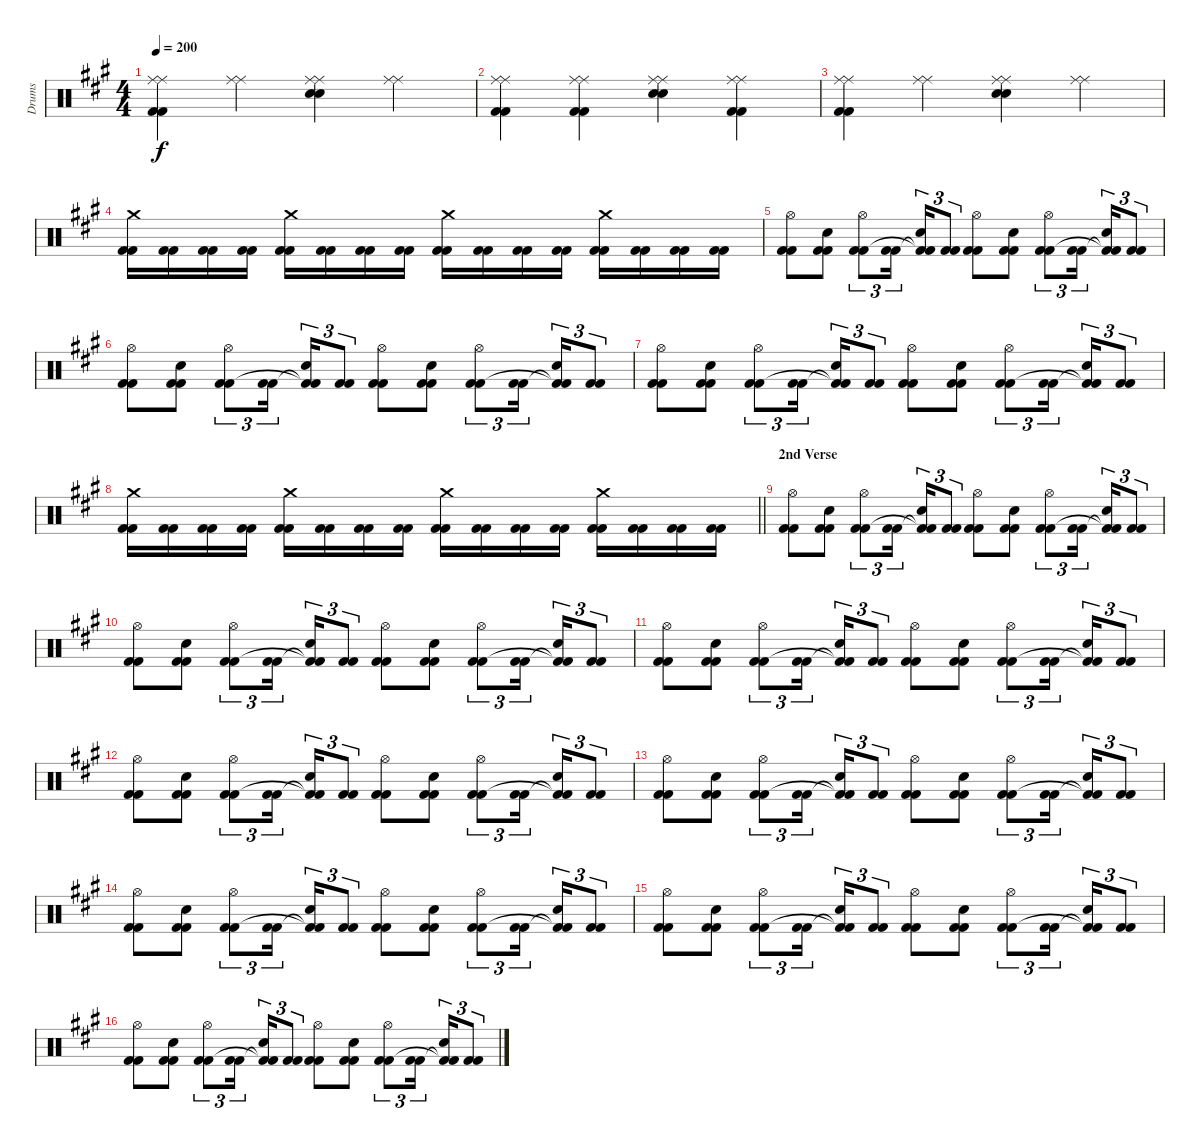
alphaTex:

\track ("Drums" "Drums") {instrument percussion}
\staff {score}
\articulation defaults
\ts (4 4)
\tempo 200
\clef neutral
\ks f#minor
("Ride (middle)" "Ride (middle)" "Kick (hit) 2" "Kick (hit) 2").4{dy f} ("Ride (middle)" "Ride (middle)").4 ("Ride (middle)" "Ride (middle)" "Snare (hit) 2" "Snare (hit) 2").4 ("Ride (middle)" "Ride (middle)").4 |
("Ride (middle)" "Ride (middle)" "Kick (hit) 2" "Kick (hit) 2").4 ("Ride (middle)" "Ride (middle)" "Kick (hit) 2" "Kick (hit) 2").4 ("Ride (middle)" "Ride (middle)" "Snare (hit) 2" "Snare (hit) 2").4 ("Ride (middle)" "Ride (middle)" "Kick (hit) 2" "Kick (hit) 2").4 |
("Ride (middle)" "Ride (middle)" "Kick (hit) 2" "Kick (hit) 2").4 ("Ride (middle)" "Ride (middle)").4 ("Ride (middle)" "Ride (middle)" "Snare (hit) 2" "Snare (hit) 2").4 ("Ride (middle)" "Ride (middle)").4 |
("Crash medium (hit)" "Kick (hit) 2" "Kick (hit) 2").16 ("Kick (hit) 2" "Kick (hit) 2").16 ("Kick (hit) 2" "Kick (hit) 2").16 ("Kick (hit) 2" "Kick (hit) 2").16 ("Crash medium (hit)" "Kick (hit) 2" "Kick (hit) 2").16 ("Kick (hit) 2" "Kick (hit) 2").16 ("Kick (hit) 2" "Kick (hit) 2").16 ("Kick (hit) 2" "Kick (hit) 2").16 ("Crash medium (hit)" "Kick (hit) 2" "Kick (hit) 2").16 ("Kick (hit) 2" "Kick (hit) 2").16 ("Kick (hit) 2" "Kick (hit) 2").16 ("Kick (hit) 2" "Kick (hit) 2").16 ("Crash medium (hit)" "Kick (hit) 2" "Kick (hit) 2").16 ("Kick (hit) 2" "Kick (hit) 2").16 ("Kick (hit) 2" "Kick (hit) 2").16 ("Kick (hit) 2" "Kick (hit) 2").16 |
("Hi-Hat (open)" "Kick (hit) 2" "Kick (hit) 2").8 ("Snare (hit) 2" "Kick (hit) 2" "Kick (hit) 2").8 ("Hi-Hat (open)" "Kick (hit) 2" "Kick (hit) 2").8{tu (3 2)} ("Kick (hit) 2" "Kick (hit) 2").16{tu (3 2) beam splitsecondary} ("Snare (hit) 2" "Kick (hit) 2"{t} "Kick (hit) 2"{t}).16{tu (3 2)} ("Kick (hit) 2" "Kick (hit) 2").8{tu (3 2)} ("Hi-Hat (open)" "Kick (hit) 2" "Kick (hit) 2").8 ("Snare (hit) 2" "Kick (hit) 2" "Kick (hit) 2").8 ("Hi-Hat (open)" "Kick (hit) 2" "Kick (hit) 2").8{tu (3 2)} ("Kick (hit) 2" "Kick (hit) 2").16{tu (3 2) beam splitsecondary} ("Snare (hit) 2" "Kick (hit) 2"{t} "Kick (hit) 2"{t}).16{tu (3 2)} ("Kick (hit) 2" "Kick (hit) 2").8{tu (3 2)} |
("Hi-Hat (open)" "Kick (hit) 2" "Kick (hit) 2").8 ("Snare (hit) 2" "Kick (hit) 2" "Kick (hit) 2").8 ("Hi-Hat (open)" "Kick (hit) 2" "Kick (hit) 2").8{tu (3 2)} ("Kick (hit) 2" "Kick (hit) 2").16{tu (3 2) beam splitsecondary} ("Snare (hit) 2" "Kick (hit) 2"{t} "Kick (hit) 2"{t}).16{tu (3 2)} ("Kick (hit) 2" "Kick (hit) 2").8{tu (3 2)} ("Hi-Hat (open)" "Kick (hit) 2" "Kick (hit) 2").8 ("Snare (hit) 2" "Kick (hit) 2" "Kick (hit) 2").8 ("Hi-Hat (open)" "Kick (hit) 2" "Kick (hit) 2").8{tu (3 2)} ("Kick (hit) 2" "Kick (hit) 2").16{tu (3 2) beam splitsecondary} ("Snare (hit) 2" "Kick (hit) 2"{t} "Kick (hit) 2"{t}).16{tu (3 2)} ("Kick (hit) 2" "Kick (hit) 2").8{tu (3 2)} |
("Hi-Hat (open)" "Kick (hit) 2" "Kick (hit) 2").8 ("Snare (hit) 2" "Kick (hit) 2" "Kick (hit) 2").8 ("Hi-Hat (open)" "Kick (hit) 2" "Kick (hit) 2").8{tu (3 2)} ("Kick (hit) 2" "Kick (hit) 2").16{tu (3 2) beam splitsecondary} ("Snare (hit) 2" "Kick (hit) 2"{t} "Kick (hit) 2"{t}).16{tu (3 2)} ("Kick (hit) 2" "Kick (hit) 2").8{tu (3 2)} ("Hi-Hat (open)" "Kick (hit) 2" "Kick (hit) 2").8 ("Snare (hit) 2" "Kick (hit) 2" "Kick (hit) 2").8 ("Hi-Hat (open)" "Kick (hit) 2" "Kick (hit) 2").8{tu (3 2)} ("Kick (hit) 2" "Kick (hit) 2").16{tu (3 2) beam splitsecondary} ("Snare (hit) 2" "Kick (hit) 2"{t} "Kick (hit) 2"{t}).16{tu (3 2)} ("Kick (hit) 2" "Kick (hit) 2").8{tu (3 2)} |
\barLineRight lightlight
("Crash medium (hit)" "Kick (hit) 2" "Kick (hit) 2").16 ("Kick (hit) 2" "Kick (hit) 2").16 ("Kick (hit) 2" "Kick (hit) 2").16 ("Kick (hit) 2" "Kick (hit) 2").16 ("Crash medium (hit)" "Kick (hit) 2" "Kick (hit) 2").16 ("Kick (hit) 2" "Kick (hit) 2").16 ("Kick (hit) 2" "Kick (hit) 2").16 ("Kick (hit) 2" "Kick (hit) 2").16 ("Crash medium (hit)" "Kick (hit) 2" "Kick (hit) 2").16 ("Kick (hit) 2" "Kick (hit) 2").16 ("Kick (hit) 2" "Kick (hit) 2").16 ("Kick (hit) 2" "Kick (hit) 2").16 ("Crash medium (hit)" "Kick (hit) 2" "Kick (hit) 2").16 ("Kick (hit) 2" "Kick (hit) 2").16 ("Kick (hit) 2" "Kick (hit) 2").16 ("Kick (hit) 2" "Kick (hit) 2").16 |
\section ("" "2nd Verse")
("Hi-Hat (open)" "Kick (hit) 2" "Kick (hit) 2").8 ("Snare (hit) 2" "Kick (hit) 2" "Kick (hit) 2").8 ("Hi-Hat (open)" "Kick (hit) 2" "Kick (hit) 2").8{tu (3 2)} ("Kick (hit) 2" "Kick (hit) 2").16{tu (3 2) beam splitsecondary} ("Snare (hit) 2" "Kick (hit) 2"{t} "Kick (hit) 2"{t}).16{tu (3 2)} ("Kick (hit) 2" "Kick (hit) 2").8{tu (3 2)} ("Hi-Hat (open)" "Kick (hit) 2" "Kick (hit) 2").8 ("Snare (hit) 2" "Kick (hit) 2" "Kick (hit) 2").8 ("Hi-Hat (open)" "Kick (hit) 2" "Kick (hit) 2").8{tu (3 2)} ("Kick (hit) 2" "Kick (hit) 2").16{tu (3 2) beam splitsecondary} ("Snare (hit) 2" "Kick (hit) 2"{t} "Kick (hit) 2"{t}).16{tu (3 2)} ("Kick (hit) 2" "Kick (hit) 2").8{tu (3 2)} |
("Hi-Hat (open)" "Kick (hit) 2" "Kick (hit) 2").8 ("Snare (hit) 2" "Kick (hit) 2" "Kick (hit) 2").8 ("Hi-Hat (open)" "Kick (hit) 2" "Kick (hit) 2").8{tu (3 2)} ("Kick (hit) 2" "Kick (hit) 2").16{tu (3 2) beam splitsecondary} ("Snare (hit) 2" "Kick (hit) 2"{t} "Kick (hit) 2"{t}).16{tu (3 2)} ("Kick (hit) 2" "Kick (hit) 2").8{tu (3 2)} ("Hi-Hat (open)" "Kick (hit) 2" "Kick (hit) 2").8 ("Snare (hit) 2" "Kick (hit) 2" "Kick (hit) 2").8 ("Hi-Hat (open)" "Kick (hit) 2" "Kick (hit) 2").8{tu (3 2)} ("Kick (hit) 2" "Kick (hit) 2").16{tu (3 2) beam splitsecondary} ("Snare (hit) 2" "Kick (hit) 2"{t} "Kick (hit) 2"{t}).16{tu (3 2)} ("Kick (hit) 2" "Kick (hit) 2").8{tu (3 2)} |
("Hi-Hat (open)" "Kick (hit) 2" "Kick (hit) 2").8 ("Snare (hit) 2" "Kick (hit) 2" "Kick (hit) 2").8 ("Hi-Hat (open)" "Kick (hit) 2" "Kick (hit) 2").8{tu (3 2)} ("Kick (hit) 2" "Kick (hit) 2").16{tu (3 2) beam splitsecondary} ("Snare (hit) 2" "Kick (hit) 2"{t} "Kick (hit) 2"{t}).16{tu (3 2)} ("Kick (hit) 2" "Kick (hit) 2").8{tu (3 2)} ("Hi-Hat (open)" "Kick (hit) 2" "Kick (hit) 2").8 ("Snare (hit) 2" "Kick (hit) 2" "Kick (hit) 2").8 ("Hi-Hat (open)" "Kick (hit) 2" "Kick (hit) 2").8{tu (3 2)} ("Kick (hit) 2" "Kick (hit) 2").16{tu (3 2) beam splitsecondary} ("Snare (hit) 2" "Kick (hit) 2"{t} "Kick (hit) 2"{t}).16{tu (3 2)} ("Kick (hit) 2" "Kick (hit) 2").8{tu (3 2)} |
("Hi-Hat (open)" "Kick (hit) 2" "Kick (hit) 2").8 ("Snare (hit) 2" "Kick (hit) 2" "Kick (hit) 2").8 ("Hi-Hat (open)" "Kick (hit) 2" "Kick (hit) 2").8{tu (3 2)} ("Kick (hit) 2" "Kick (hit) 2").16{tu (3 2) beam splitsecondary} ("Snare (hit) 2" "Kick (hit) 2"{t} "Kick (hit) 2"{t}).16{tu (3 2)} ("Kick (hit) 2" "Kick (hit) 2").8{tu (3 2)} ("Hi-Hat (open)" "Kick (hit) 2" "Kick (hit) 2").8 ("Snare (hit) 2" "Kick (hit) 2" "Kick (hit) 2").8 ("Hi-Hat (open)" "Kick (hit) 2" "Kick (hit) 2").8{tu (3 2)} ("Kick (hit) 2" "Kick (hit) 2").16{tu (3 2) beam splitsecondary} ("Snare (hit) 2" "Kick (hit) 2"{t} "Kick (hit) 2"{t}).16{tu (3 2)} ("Kick (hit) 2" "Kick (hit) 2").8{tu (3 2)} |
("Hi-Hat (open)" "Kick (hit) 2" "Kick (hit) 2").8 ("Snare (hit) 2" "Kick (hit) 2" "Kick (hit) 2").8 ("Hi-Hat (open)" "Kick (hit) 2" "Kick (hit) 2").8{tu (3 2)} ("Kick (hit) 2" "Kick (hit) 2").16{tu (3 2) beam splitsecondary} ("Snare (hit) 2" "Kick (hit) 2"{t} "Kick (hit) 2"{t}).16{tu (3 2)} ("Kick (hit) 2" "Kick (hit) 2").8{tu (3 2)} ("Hi-Hat (open)" "Kick (hit) 2" "Kick (hit) 2").8 ("Snare (hit) 2" "Kick (hit) 2" "Kick (hit) 2").8 ("Hi-Hat (open)" "Kick (hit) 2" "Kick (hit) 2").8{tu (3 2)} ("Kick (hit) 2" "Kick (hit) 2").16{tu (3 2) beam splitsecondary} ("Snare (hit) 2" "Kick (hit) 2"{t} "Kick (hit) 2"{t}).16{tu (3 2)} ("Kick (hit) 2" "Kick (hit) 2").8{tu (3 2)} |
("Hi-Hat (open)" "Kick (hit) 2" "Kick (hit) 2").8 ("Snare (hit) 2" "Kick (hit) 2" "Kick (hit) 2").8 ("Hi-Hat (open)" "Kick (hit) 2" "Kick (hit) 2").8{tu (3 2)} ("Kick (hit) 2" "Kick (hit) 2").16{tu (3 2) beam splitsecondary} ("Snare (hit) 2" "Kick (hit) 2"{t} "Kick (hit) 2"{t}).16{tu (3 2)} ("Kick (hit) 2" "Kick (hit) 2").8{tu (3 2)} ("Hi-Hat (open)" "Kick (hit) 2" "Kick (hit) 2").8 ("Snare (hit) 2" "Kick (hit) 2" "Kick (hit) 2").8 ("Hi-Hat (open)" "Kick (hit) 2" "Kick (hit) 2").8{tu (3 2)} ("Kick (hit) 2" "Kick (hit) 2").16{tu (3 2) beam splitsecondary} ("Snare (hit) 2" "Kick (hit) 2"{t} "Kick (hit) 2"{t}).16{tu (3 2)} ("Kick (hit) 2" "Kick (hit) 2").8{tu (3 2)} |
("Hi-Hat (open)" "Kick (hit) 2" "Kick (hit) 2").8 ("Snare (hit) 2" "Kick (hit) 2" "Kick (hit) 2").8 ("Hi-Hat (open)" "Kick (hit) 2" "Kick (hit) 2").8{tu (3 2)} ("Kick (hit) 2" "Kick (hit) 2").16{tu (3 2) beam splitsecondary} ("Snare (hit) 2" "Kick (hit) 2"{t} "Kick (hit) 2"{t}).16{tu (3 2)} ("Kick (hit) 2" "Kick (hit) 2").8{tu (3 2)} ("Hi-Hat (open)" "Kick (hit) 2" "Kick (hit) 2").8 ("Snare (hit) 2" "Kick (hit) 2" "Kick (hit) 2").8 ("Hi-Hat (open)" "Kick (hit) 2" "Kick (hit) 2").8{tu (3 2)} ("Kick (hit) 2" "Kick (hit) 2").16{tu (3 2) beam splitsecondary} ("Snare (hit) 2" "Kick (hit) 2"{t} "Kick (hit) 2"{t}).16{tu (3 2)} ("Kick (hit) 2" "Kick (hit) 2").8{tu (3 2)} |
("Hi-Hat (open)" "Kick (hit) 2" "Kick (hit) 2").8 ("Snare (hit) 2" "Kick (hit) 2" "Kick (hit) 2").8 ("Hi-Hat (open)" "Kick (hit) 2" "Kick (hit) 2").8{tu (3 2)} ("Kick (hit) 2" "Kick (hit) 2").16{tu (3 2) beam splitsecondary} ("Snare (hit) 2" "Kick (hit) 2"{t} "Kick (hit) 2"{t}).16{tu (3 2)} ("Kick (hit) 2" "Kick (hit) 2").8{tu (3 2)} ("Hi-Hat (open)" "Kick (hit) 2" "Kick (hit) 2").8 ("Snare (hit) 2" "Kick (hit) 2" "Kick (hit) 2").8 ("Hi-Hat (open)" "Kick (hit) 2" "Kick (hit) 2").8{tu (3 2)} ("Kick (hit) 2" "Kick (hit) 2").16{tu (3 2) beam splitsecondary} ("Snare (hit) 2" "Kick (hit) 2"{t} "Kick (hit) 2"{t}).16{tu (3 2)} ("Kick (hit) 2" "Kick (hit) 2").8{tu (3 2)}
